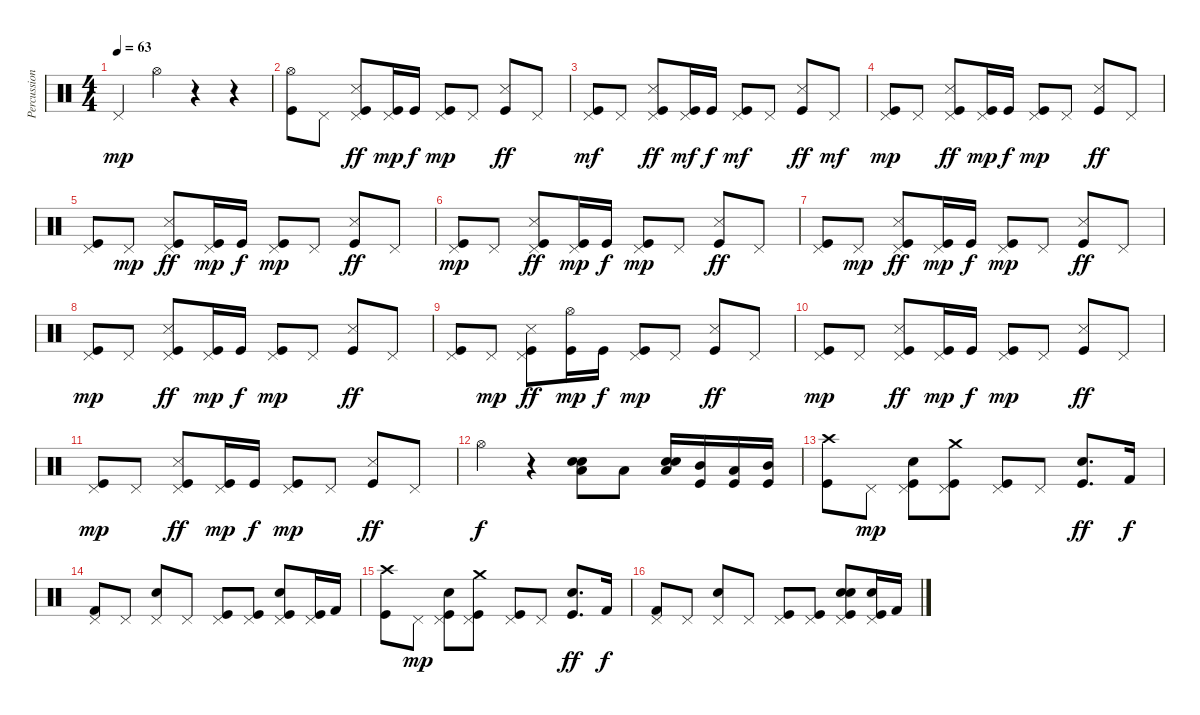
\track ("Percussion" "Percussion") {instrument percussion}
\staff {score}
\articulation defaults
\ts (4 4)
\tempo 63
\clef neutral
\ks c "Pedal Hi-Hat (hit)".4{dy mp} "Hi-Hat (open)".4
r.4 r.4 |
("Hi-Hat (open)" "Kick (hit)").8 "Pedal Hi-Hat (hit)".8 ("Pedal Hi-Hat (hit)" "Snare (side stick) 3" "Kick (hit)").8{dy ff} ("Pedal Hi-Hat (hit)" "Kick (hit)").16{dy mp} "Kick (hit)".16{dy f} ("Pedal Hi-Hat (hit)" "Kick (hit)").8{dy mp} "Pedal Hi-Hat (hit)".8 ("Snare (side stick) 3" "Kick (hit)").8{dy ff} "Pedal Hi-Hat (hit)".8 |
("Pedal Hi-Hat (hit)" "Kick (hit)").8{dy mf} "Pedal Hi-Hat (hit)".8 ("Pedal Hi-Hat (hit)" "Snare (side stick) 3" "Kick (hit)").8{dy ff} ("Pedal Hi-Hat (hit)" "Kick (hit)").16{dy mf} "Kick (hit)".16{dy f} ("Pedal Hi-Hat (hit)" "Kick (hit)").8{dy mf} "Pedal Hi-Hat (hit)".8 ("Snare (side stick) 3" "Kick (hit)").8{dy ff} "Pedal Hi-Hat (hit)".8{dy mf} |
("Pedal Hi-Hat (hit)" "Kick (hit)").8{dy mp} "Pedal Hi-Hat (hit)".8 ("Pedal Hi-Hat (hit)" "Snare (side stick) 3" "Kick (hit)").8{dy ff} ("Pedal Hi-Hat (hit)" "Kick (hit)").16{dy mp} "Kick (hit)".16{dy f} ("Pedal Hi-Hat (hit)" "Kick (hit)").8{dy mp} "Pedal Hi-Hat (hit)".8 ("Snare (side stick) 3" "Kick (hit)").8{dy ff} "Pedal Hi-Hat (hit)".8 |
("Pedal Hi-Hat (hit)" "Kick (hit)").8 "Pedal Hi-Hat (hit)".8{dy mp} ("Pedal Hi-Hat (hit)" "Snare (side stick) 3" "Kick (hit)").8{dy ff} ("Pedal Hi-Hat (hit)" "Kick (hit)").16{dy mp} "Kick (hit)".16{dy f} ("Pedal Hi-Hat (hit)" "Kick (hit)").8{dy mp} "Pedal Hi-Hat (hit)".8 ("Snare (side stick) 3" "Kick (hit)").8{dy ff} "Pedal Hi-Hat (hit)".8 |
("Pedal Hi-Hat (hit)" "Kick (hit)").8{dy mp} "Pedal Hi-Hat (hit)".8 ("Pedal Hi-Hat (hit)" "Snare (side stick) 3" "Kick (hit)").8{dy ff} ("Pedal Hi-Hat (hit)" "Kick (hit)").16{dy mp} "Kick (hit)".16{dy f} ("Pedal Hi-Hat (hit)" "Kick (hit)").8{dy mp} "Pedal Hi-Hat (hit)".8 ("Snare (side stick) 3" "Kick (hit)").8{dy ff} "Pedal Hi-Hat (hit)".8 |
("Pedal Hi-Hat (hit)" "Kick (hit)").8 "Pedal Hi-Hat (hit)".8{dy mp} ("Pedal Hi-Hat (hit)" "Snare (side stick) 3" "Kick (hit)").8{dy ff} ("Pedal Hi-Hat (hit)" "Kick (hit)").16{dy mp} "Kick (hit)".16{dy f} ("Pedal Hi-Hat (hit)" "Kick (hit)").8{dy mp} "Pedal Hi-Hat (hit)".8 ("Snare (side stick) 3" "Kick (hit)").8{dy ff} "Pedal Hi-Hat (hit)".8 |
("Pedal Hi-Hat (hit)" "Kick (hit)").8{dy mp} "Pedal Hi-Hat (hit)".8 ("Pedal Hi-Hat (hit)" "Snare (side stick) 3" "Kick (hit)").8{dy ff} ("Pedal Hi-Hat (hit)" "Kick (hit)").16{dy mp} "Kick (hit)".16{dy f} ("Pedal Hi-Hat (hit)" "Kick (hit)").8{dy mp} "Pedal Hi-Hat (hit)".8 ("Snare (side stick) 3" "Kick (hit)").8{dy ff} "Pedal Hi-Hat (hit)".8 |
("Pedal Hi-Hat (hit)" "Kick (hit)").8 "Pedal Hi-Hat (hit)".8{dy mp} ("Pedal Hi-Hat (hit)" "Snare (side stick) 3" "Kick (hit)").8{dy ff} ("Hi-Hat (open)" "Kick (hit)").16{dy mp} "Kick (hit)".16{dy f} ("Pedal Hi-Hat (hit)" "Kick (hit)").8{dy mp} "Pedal Hi-Hat (hit)".8 ("Snare (side stick) 3" "Kick (hit)").8{dy ff} "Pedal Hi-Hat (hit)".8 |
("Pedal Hi-Hat (hit)" "Kick (hit)").8{dy mp} "Pedal Hi-Hat (hit)".8 ("Pedal Hi-Hat (hit)" "Snare (side stick) 3" "Kick (hit)").8{dy ff} ("Pedal Hi-Hat (hit)" "Kick (hit)").16{dy mp} "Kick (hit)".16{dy f} ("Pedal Hi-Hat (hit)" "Kick (hit)").8{dy mp} "Pedal Hi-Hat (hit)".8 ("Snare (side stick) 3" "Kick (hit)").8{dy ff} "Pedal Hi-Hat (hit)".8 |
("Pedal Hi-Hat (hit)" "Kick (hit)").8{dy mp} "Pedal Hi-Hat (hit)".8 ("Pedal Hi-Hat (hit)" "Snare (side stick) 3" "Kick (hit)").8{dy ff} ("Pedal Hi-Hat (hit)" "Kick (hit)").16{dy mp} "Kick (hit)".16{dy f} ("Pedal Hi-Hat (hit)" "Kick (hit)").8{dy mp} "Pedal Hi-Hat (hit)".8 ("Snare (side stick) 3" "Kick (hit)").8{dy ff} "Pedal Hi-Hat (hit)".8 |
"Hi-Hat (open)".4{dy f} r.4 ("Low Floor Tom (hit)" "Electric Snare (hit)" "Snare (hit) 2").8 "Low Floor Tom (hit)".8 ("Low Tom (hit)" "Electric Snare (hit)" "Snare (hit) 2").16 ("Mid Tom (hit)" "Kick (hit)").16 ("Low Tom (hit)" "Kick (hit)").16 ("Mid Tom (hit)" "Kick (hit)").16 |
("Crash high (hit)" "Kick (hit)").8 "Pedal Hi-Hat (hit)".8{dy mp} ("Pedal Hi-Hat (hit)" "Electric Snare (hit)" "Kick (hit)").8 ("Crash medium (hit)" "Pedal Hi-Hat (hit)" "Kick (hit)").8 ("Pedal Hi-Hat (hit)" "Kick (hit)").8 "Pedal Hi-Hat (hit)".8 ("Electric Snare (hit)" "Kick (hit)").8{d dy ff} "Kick (hit) 2".16{dy f} |
("Kick (hit) 2" "Pedal Hi-Hat (hit)").8 "Pedal Hi-Hat (hit)".8 ("Electric Snare (hit)" "Pedal Hi-Hat (hit)").8 "Pedal Hi-Hat (hit)".8 ("Kick (hit)" "Pedal Hi-Hat (hit)").8 ("Kick (hit)" "Pedal Hi-Hat (hit)").8 ("Electric Snare (hit)" "Kick (hit)" "Pedal Hi-Hat (hit)").8 ("Kick (hit)" "Pedal Hi-Hat (hit)").16 "Kick (hit) 2".16 |
("Crash high (hit)" "Kick (hit)").8 "Pedal Hi-Hat (hit)".8{dy mp} ("Pedal Hi-Hat (hit)" "Electric Snare (hit)" "Kick (hit)").8 ("Crash medium (hit)" "Pedal Hi-Hat (hit)" "Kick (hit)").8 ("Pedal Hi-Hat (hit)" "Kick (hit)").8 "Pedal Hi-Hat (hit)".8 ("Electric Snare (hit)" "Kick (hit)").8{d dy ff} "Kick (hit) 2".16{dy f} |
("Kick (hit) 2" "Pedal Hi-Hat (hit)").8 "Pedal Hi-Hat (hit)".8 ("Electric Snare (hit)" "Pedal Hi-Hat (hit)").8 "Pedal Hi-Hat (hit)".8 ("Kick (hit)" "Pedal Hi-Hat (hit)").8 ("Kick (hit)" "Pedal Hi-Hat (hit)").8 ("Snare (hit) 2" "Electric Snare (hit)" "Kick (hit)" "Pedal Hi-Hat (hit)").8 ("Snare (hit) 2" "Kick (hit)" "Pedal Hi-Hat (hit)").16 "Kick (hit) 2".16
